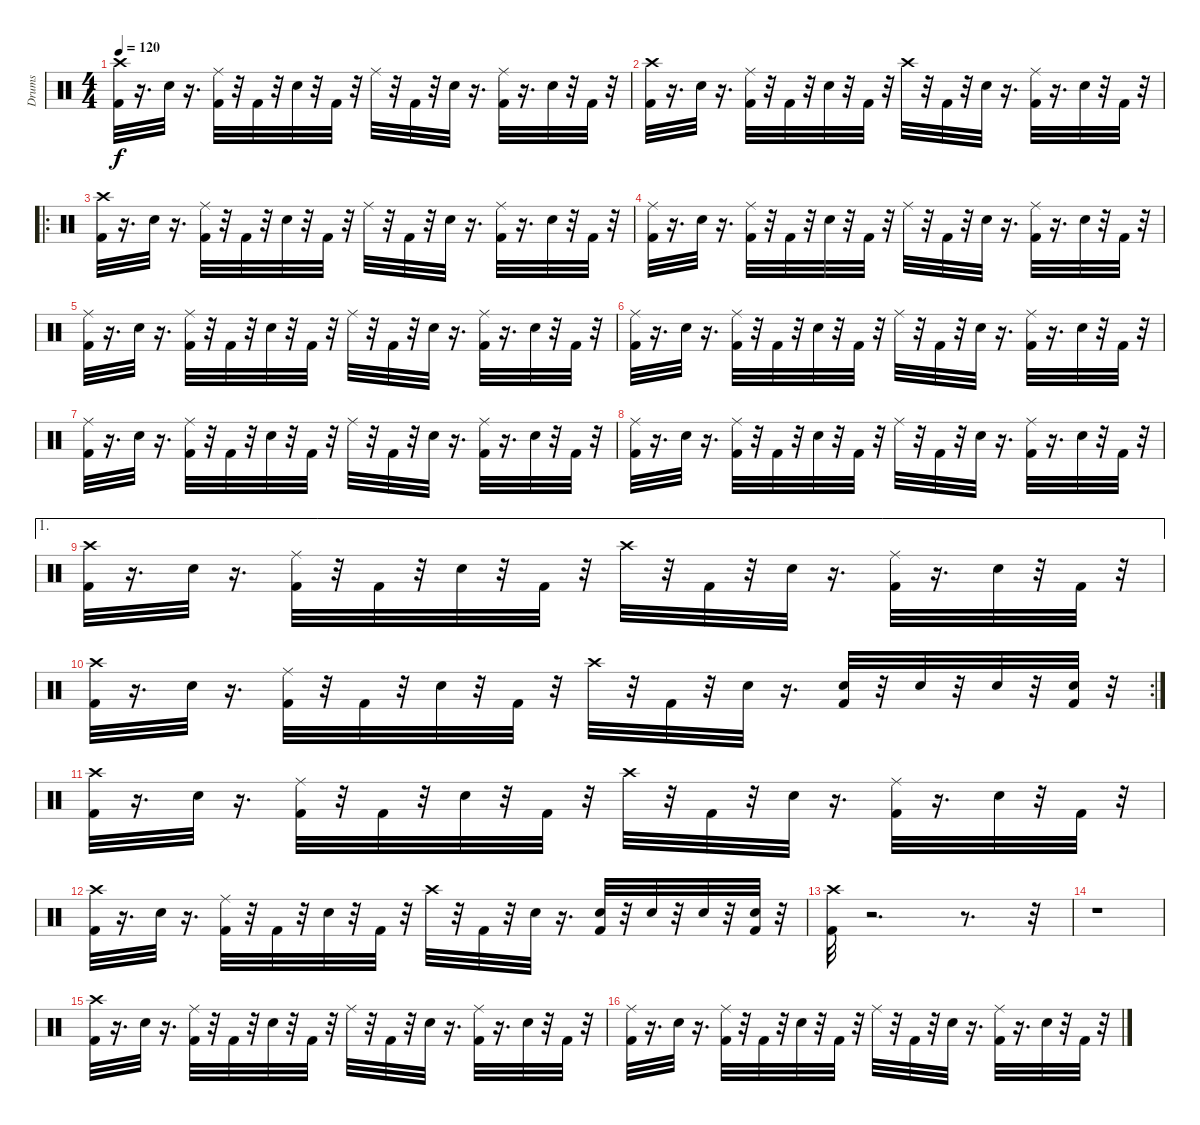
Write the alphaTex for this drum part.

\track ("Drums" "Drums") {instrument percussion}
\staff {score}
\articulation defaults
\ts (4 4)
\tempo 120
\clef neutral
\ks c
("Crash high (hit)" "Kick (hit) 2").32{dy f} r.16{d} "Snare (hit) 2".32 r.16{d} ("Kick (hit) 2" "Ride (middle)").32 r.32 "Kick (hit) 2".32 r.32 "Snare (hit) 2".32 r.32 "Kick (hit) 2".32 r.32 "Ride (middle)".32 r.32 "Kick (hit) 2".32 r.32 "Snare (hit) 2".32 r.16{d} ("Kick (hit) 2" "Ride (middle)").32 r.16{d} "Snare (hit) 2".32 r.32 "Kick (hit) 2".32 r.32 |
("Crash high (hit)" "Kick (hit) 2").32 r.16{d} "Snare (hit) 2".32 r.16{d} ("Kick (hit) 2" "Ride (middle)").32 r.32 "Kick (hit) 2".32 r.32 "Snare (hit) 2".32 r.32 "Kick (hit) 2".32 r.32 "Crash high (hit)".32 r.32 "Kick (hit) 2".32 r.32 "Snare (hit) 2".32 r.16{d} ("Kick (hit) 2" "Ride (middle)").32 r.16{d} "Snare (hit) 2".32 r.32 "Kick (hit) 2".32 r.32 |
\ro
("Crash high (hit)" "Kick (hit) 2").32 r.16{d} "Snare (hit) 2".32 r.16{d} ("Kick (hit) 2" "Ride (middle)").32 r.32 "Kick (hit) 2".32 r.32 "Snare (hit) 2".32 r.32 "Kick (hit) 2".32 r.32 "Ride (middle)".32 r.32 "Kick (hit) 2".32 r.32 "Snare (hit) 2".32 r.16{d} ("Kick (hit) 2" "Ride (middle)").32 r.16{d} "Snare (hit) 2".32 r.32 "Kick (hit) 2".32 r.32 |
("Ride (middle)" "Kick (hit) 2").32 r.16{d} "Snare (hit) 2".32 r.16{d} ("Kick (hit) 2" "Ride (middle)").32 r.32 "Kick (hit) 2".32 r.32 "Snare (hit) 2".32 r.32 "Kick (hit) 2".32 r.32 "Ride (middle)".32 r.32 "Kick (hit) 2".32 r.32 "Snare (hit) 2".32 r.16{d} ("Kick (hit) 2" "Ride (middle)").32 r.16{d} "Snare (hit) 2".32 r.32 "Kick (hit) 2".32 r.32 |
("Ride (middle)" "Kick (hit) 2").32 r.16{d} "Snare (hit) 2".32 r.16{d} ("Kick (hit) 2" "Ride (middle)").32 r.32 "Kick (hit) 2".32 r.32 "Snare (hit) 2".32 r.32 "Kick (hit) 2".32 r.32 "Ride (middle)".32 r.32 "Kick (hit) 2".32 r.32 "Snare (hit) 2".32 r.16{d} ("Kick (hit) 2" "Ride (middle)").32 r.16{d} "Snare (hit) 2".32 r.32 "Kick (hit) 2".32 r.32 |
("Ride (middle)" "Kick (hit) 2").32 r.16{d} "Snare (hit) 2".32 r.16{d} ("Kick (hit) 2" "Ride (middle)").32 r.32 "Kick (hit) 2".32 r.32 "Snare (hit) 2".32 r.32 "Kick (hit) 2".32 r.32 "Ride (middle)".32 r.32 "Kick (hit) 2".32 r.32 "Snare (hit) 2".32 r.16{d} ("Kick (hit) 2" "Ride (middle)").32 r.16{d} "Snare (hit) 2".32 r.32 "Kick (hit) 2".32 r.32 |
("Ride (middle)" "Kick (hit) 2").32 r.16{d} "Snare (hit) 2".32 r.16{d} ("Kick (hit) 2" "Ride (middle)").32 r.32 "Kick (hit) 2".32 r.32 "Snare (hit) 2".32 r.32 "Kick (hit) 2".32 r.32 "Ride (middle)".32 r.32 "Kick (hit) 2".32 r.32 "Snare (hit) 2".32 r.16{d} ("Kick (hit) 2" "Ride (middle)").32 r.16{d} "Snare (hit) 2".32 r.32 "Kick (hit) 2".32 r.32 |
("Ride (middle)" "Kick (hit) 2").32 r.16{d} "Snare (hit) 2".32 r.16{d} ("Kick (hit) 2" "Ride (middle)").32 r.32 "Kick (hit) 2".32 r.32 "Snare (hit) 2".32 r.32 "Kick (hit) 2".32 r.32 "Ride (middle)".32 r.32 "Kick (hit) 2".32 r.32 "Snare (hit) 2".32 r.16{d} ("Kick (hit) 2" "Ride (middle)").32 r.16{d} "Snare (hit) 2".32 r.32 "Kick (hit) 2".32 r.32 |
\ae 1
("Crash high (hit)" "Kick (hit) 2").32 r.16{d} "Snare (hit) 2".32 r.16{d} ("Kick (hit) 2" "Ride (middle)").32 r.32 "Kick (hit) 2".32 r.32 "Snare (hit) 2".32 r.32 "Kick (hit) 2".32 r.32 "Crash high (hit)".32 r.32 "Kick (hit) 2".32 r.32 "Snare (hit) 2".32 r.16{d} ("Kick (hit) 2" "Ride (middle)").32 r.16{d} "Snare (hit) 2".32 r.32 "Kick (hit) 2".32 r.32 |
\rc 2
("Crash high (hit)" "Kick (hit) 2").32 r.16{d} "Snare (hit) 2".32 r.16{d} ("Kick (hit) 2" "Ride (middle)").32 r.32 "Kick (hit) 2".32 r.32 "Snare (hit) 2".32 r.32 "Kick (hit) 2".32 r.32 "Crash high (hit)".32 r.32 "Kick (hit) 2".32 r.32 "Snare (hit) 2".32 r.16{d} ("Kick (hit) 2" "Snare (hit) 2").32 r.32 "Snare (hit) 2".32 r.32 "Snare (hit) 2".32 r.32 ("Snare (hit) 2" "Kick (hit) 2").32 r.32 |
("Crash high (hit)" "Kick (hit) 2").32 r.16{d} "Snare (hit) 2".32 r.16{d} ("Kick (hit) 2" "Ride (middle)").32 r.32 "Kick (hit) 2".32 r.32 "Snare (hit) 2".32 r.32 "Kick (hit) 2".32 r.32 "Crash high (hit)".32 r.32 "Kick (hit) 2".32 r.32 "Snare (hit) 2".32 r.16{d} ("Kick (hit) 2" "Ride (middle)").32 r.16{d} "Snare (hit) 2".32 r.32 "Kick (hit) 2".32 r.32 |
("Crash high (hit)" "Kick (hit) 2").32 r.16{d} "Snare (hit) 2".32 r.16{d} ("Kick (hit) 2" "Ride (middle)").32 r.32 "Kick (hit) 2".32 r.32 "Snare (hit) 2".32 r.32 "Kick (hit) 2".32 r.32 "Crash high (hit)".32 r.32 "Kick (hit) 2".32 r.32 "Snare (hit) 2".32 r.16{d} ("Snare (hit) 2" "Kick (hit) 2").32 r.32 "Snare (hit) 2".32 r.32 "Snare (hit) 2".32 r.32 ("Snare (hit) 2" "Kick (hit) 2").32 r.32 |
("Crash high (hit)" "Kick (hit) 2").32 r.2{d} r.8{d} r.32 |
r.1 |
("Crash high (hit)" "Kick (hit) 2").32 r.16{d} "Snare (hit) 2".32 r.16{d} ("Kick (hit) 2" "Ride (middle)").32 r.32 "Kick (hit) 2".32 r.32 "Snare (hit) 2".32 r.32 "Kick (hit) 2".32 r.32 "Ride (middle)".32 r.32 "Kick (hit) 2".32 r.32 "Snare (hit) 2".32 r.16{d} ("Kick (hit) 2" "Ride (middle)").32 r.16{d} "Snare (hit) 2".32 r.32 "Kick (hit) 2".32 r.32 |
("Ride (middle)" "Kick (hit) 2").32 r.16{d} "Snare (hit) 2".32 r.16{d} ("Kick (hit) 2" "Ride (middle)").32 r.32 "Kick (hit) 2".32 r.32 "Snare (hit) 2".32 r.32 "Kick (hit) 2".32 r.32 "Ride (middle)".32 r.32 "Kick (hit) 2".32 r.32 "Snare (hit) 2".32 r.16{d} ("Kick (hit) 2" "Ride (middle)").32 r.16{d} "Snare (hit) 2".32 r.32 "Kick (hit) 2".32 r.32
